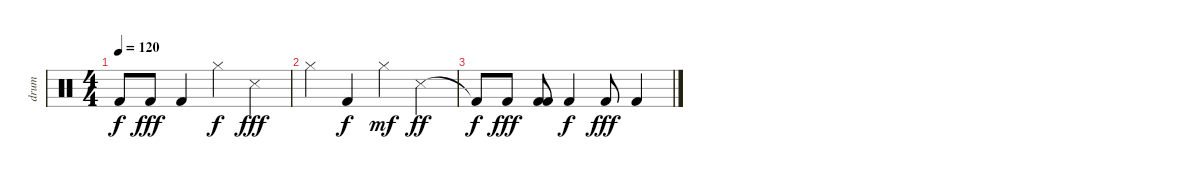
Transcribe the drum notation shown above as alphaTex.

\track ("drum" "drum") {instrument percussion}
\staff {score}
\articulation defaults
\ts (4 4)
\tempo 120
\clef neutral
\ks c "Kick (hit) 2"{t}.8{dy f} "Kick (hit) 2".8{dy fff} "Kick (hit) 2".4 "Hi-Hat (closed)".4{dy f} "Metronome (hit)".4{dy fff}
|
"Hi-Hat (closed)".4 "Kick (hit) 2".4{dy f} "Hi-Hat (closed)".4{dy mf} "Metronome (hit)".4{dy ff} |
"Kick (hit) 2"{t}.8{dy f} "Kick (hit) 2".8{dy fff} ("Kick (hit) 2" "Kick (hit) 2").8 "Kick (hit) 2".4{dy f} "Kick (hit) 2".8{dy fff} "Kick (hit) 2".4
